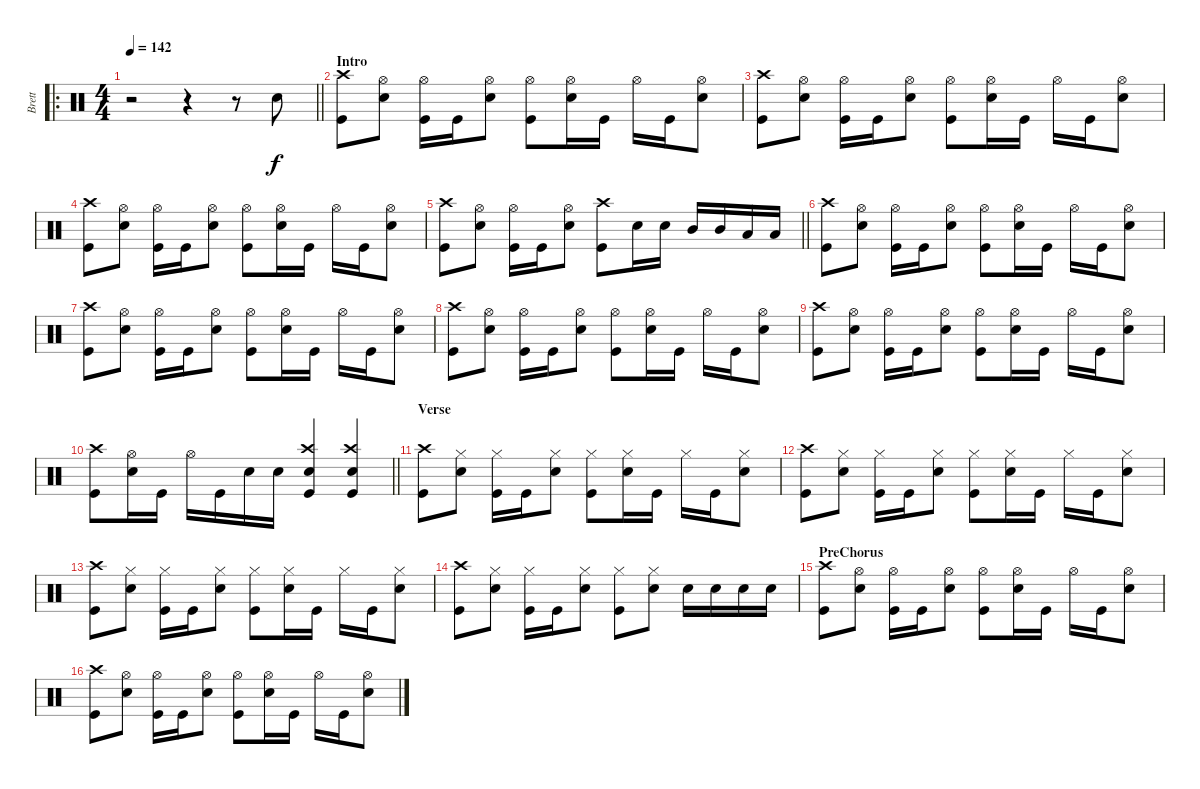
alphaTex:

\track ("Brett" "Brett") {instrument percussion}
\staff {score}
\articulation defaults
\ro
\ts (4 4)
\tempo 142
\clef neutral
\barLineRight lightlight
\ks c
r.2{dy f} r.4 r.8 "Electric Snare (hit)".8 |
\section ("" "Intro")
("Crash high (hit)" "Kick (hit)").8 ("Hi-Hat (open)" "Electric Snare (hit)").8 ("Hi-Hat (open)" "Kick (hit)").16 "Kick (hit)".16 ("Hi-Hat (open)" "Electric Snare (hit)").8 ("Hi-Hat (open)" "Kick (hit)").8 ("Hi-Hat (open)" "Electric Snare (hit)").16 "Kick (hit)".16 "Hi-Hat (open)".16 "Kick (hit)".16 ("Hi-Hat (open)" "Electric Snare (hit)").8 |
("Crash high (hit)" "Kick (hit)").8 ("Hi-Hat (open)" "Electric Snare (hit)").8 ("Hi-Hat (open)" "Kick (hit)").16 "Kick (hit)".16 ("Hi-Hat (open)" "Electric Snare (hit)").8 ("Hi-Hat (open)" "Kick (hit)").8 ("Hi-Hat (open)" "Electric Snare (hit)").16 "Kick (hit)".16 "Hi-Hat (open)".16 "Kick (hit)".16 ("Hi-Hat (open)" "Electric Snare (hit)").8 |
("Crash high (hit)" "Kick (hit)").8 ("Hi-Hat (open)" "Electric Snare (hit)").8 ("Hi-Hat (open)" "Kick (hit)").16 "Kick (hit)".16 ("Hi-Hat (open)" "Electric Snare (hit)").8 ("Hi-Hat (open)" "Kick (hit)").8 ("Hi-Hat (open)" "Electric Snare (hit)").16 "Kick (hit)".16 "Hi-Hat (open)".16 "Kick (hit)".16 ("Hi-Hat (open)" "Electric Snare (hit)").8 |
\barLineRight lightlight
("Crash high (hit)" "Kick (hit)").8 ("Hi-Hat (open)" "Electric Snare (hit)").8 ("Hi-Hat (open)" "Kick (hit)").16 "Kick (hit)".16 ("Hi-Hat (open)" "Electric Snare (hit)").8 ("Crash high (hit)" "Kick (hit)").8 "Electric Snare (hit)".16 "Electric Snare (hit)".16 "Mid Tom (hit)".16 "Mid Tom (hit)".16 "Low Tom (hit)".16 "Low Tom (hit)".16 |
("Crash high (hit)" "Kick (hit)").8 ("Hi-Hat (open)" "Electric Snare (hit)").8 ("Hi-Hat (open)" "Kick (hit)").16 "Kick (hit)".16 ("Hi-Hat (open)" "Electric Snare (hit)").8 ("Hi-Hat (open)" "Kick (hit)").8 ("Hi-Hat (open)" "Electric Snare (hit)").16 "Kick (hit)".16 "Hi-Hat (open)".16 "Kick (hit)".16 ("Hi-Hat (open)" "Electric Snare (hit)").8 |
("Crash high (hit)" "Kick (hit)").8 ("Hi-Hat (open)" "Electric Snare (hit)").8 ("Hi-Hat (open)" "Kick (hit)").16 "Kick (hit)".16 ("Hi-Hat (open)" "Electric Snare (hit)").8 ("Hi-Hat (open)" "Kick (hit)").8 ("Hi-Hat (open)" "Electric Snare (hit)").16 "Kick (hit)".16 "Hi-Hat (open)".16 "Kick (hit)".16 ("Hi-Hat (open)" "Electric Snare (hit)").8 |
("Crash high (hit)" "Kick (hit)").8 ("Hi-Hat (open)" "Electric Snare (hit)").8 ("Hi-Hat (open)" "Kick (hit)").16 "Kick (hit)".16 ("Hi-Hat (open)" "Electric Snare (hit)").8 ("Hi-Hat (open)" "Kick (hit)").8 ("Hi-Hat (open)" "Electric Snare (hit)").16 "Kick (hit)".16 "Hi-Hat (open)".16 "Kick (hit)".16 ("Hi-Hat (open)" "Electric Snare (hit)").8 |
("Crash high (hit)" "Kick (hit)").8 ("Hi-Hat (open)" "Electric Snare (hit)").8 ("Hi-Hat (open)" "Kick (hit)").16 "Kick (hit)".16 ("Hi-Hat (open)" "Electric Snare (hit)").8 ("Hi-Hat (open)" "Kick (hit)").8 ("Hi-Hat (open)" "Electric Snare (hit)").16 "Kick (hit)".16 "Hi-Hat (open)".16 "Kick (hit)".16 ("Hi-Hat (open)" "Electric Snare (hit)").8 |
\barLineRight lightlight
("Crash high (hit)" "Kick (hit)").8 ("Hi-Hat (open)" "Electric Snare (hit)").16 "Kick (hit)".16 "Hi-Hat (open)".16 "Kick (hit)".16 "Electric Snare (hit)".16 "Electric Snare (hit)".16 ("Crash high (hit)" "Electric Snare (hit)" "Kick (hit)").4 ("Crash high (hit)" "Electric Snare (hit)" "Kick (hit)").4 |
\section ("" "Verse")
("Crash high (hit)" "Kick (hit)").8 ("Hi-Hat (closed)" "Electric Snare (hit)").8 ("Hi-Hat (closed)" "Kick (hit)").16 "Kick (hit)".16 ("Hi-Hat (closed)" "Electric Snare (hit)").8 ("Hi-Hat (closed)" "Kick (hit)").8 ("Hi-Hat (closed)" "Electric Snare (hit)").16 "Kick (hit)".16 "Hi-Hat (closed)".16 "Kick (hit)".16 ("Hi-Hat (closed)" "Electric Snare (hit)").8 |
("Crash high (hit)" "Kick (hit)").8 ("Hi-Hat (closed)" "Electric Snare (hit)").8 ("Hi-Hat (closed)" "Kick (hit)").16 "Kick (hit)".16 ("Hi-Hat (closed)" "Electric Snare (hit)").8 ("Hi-Hat (closed)" "Kick (hit)").8 ("Hi-Hat (closed)" "Electric Snare (hit)").16 "Kick (hit)".16 "Hi-Hat (closed)".16 "Kick (hit)".16 ("Hi-Hat (closed)" "Electric Snare (hit)").8 |
("Crash high (hit)" "Kick (hit)").8 ("Hi-Hat (closed)" "Electric Snare (hit)").8 ("Hi-Hat (closed)" "Kick (hit)").16 "Kick (hit)".16 ("Hi-Hat (closed)" "Electric Snare (hit)").8 ("Hi-Hat (closed)" "Kick (hit)").8 ("Hi-Hat (closed)" "Electric Snare (hit)").16 "Kick (hit)".16 "Hi-Hat (closed)".16 "Kick (hit)".16 ("Hi-Hat (closed)" "Electric Snare (hit)").8 |
("Crash high (hit)" "Kick (hit)").8 ("Hi-Hat (closed)" "Electric Snare (hit)").8 ("Hi-Hat (closed)" "Kick (hit)").16 "Kick (hit)".16 ("Hi-Hat (closed)" "Electric Snare (hit)").8 ("Hi-Hat (closed)" "Kick (hit)").8 ("Hi-Hat (closed)" "Electric Snare (hit)").8 "Electric Snare (hit)".16 "Electric Snare (hit)".16 "Electric Snare (hit)".16 "Electric Snare (hit)".16 |
\section ("" "PreChorus")
("Crash high (hit)" "Kick (hit)").8 ("Hi-Hat (open)" "Electric Snare (hit)").8 ("Hi-Hat (open)" "Kick (hit)").16 "Kick (hit)".16 ("Hi-Hat (open)" "Electric Snare (hit)").8 ("Hi-Hat (open)" "Kick (hit)").8 ("Hi-Hat (open)" "Electric Snare (hit)").16 "Kick (hit)".16 "Hi-Hat (open)".16 "Kick (hit)".16 ("Hi-Hat (open)" "Electric Snare (hit)").8 |
("Crash high (hit)" "Kick (hit)").8 ("Hi-Hat (open)" "Electric Snare (hit)").8 ("Hi-Hat (open)" "Kick (hit)").16 "Kick (hit)".16 ("Hi-Hat (open)" "Electric Snare (hit)").8 ("Hi-Hat (open)" "Kick (hit)").8 ("Hi-Hat (open)" "Electric Snare (hit)").16 "Kick (hit)".16 "Hi-Hat (open)".16 "Kick (hit)".16 ("Hi-Hat (open)" "Electric Snare (hit)").8
